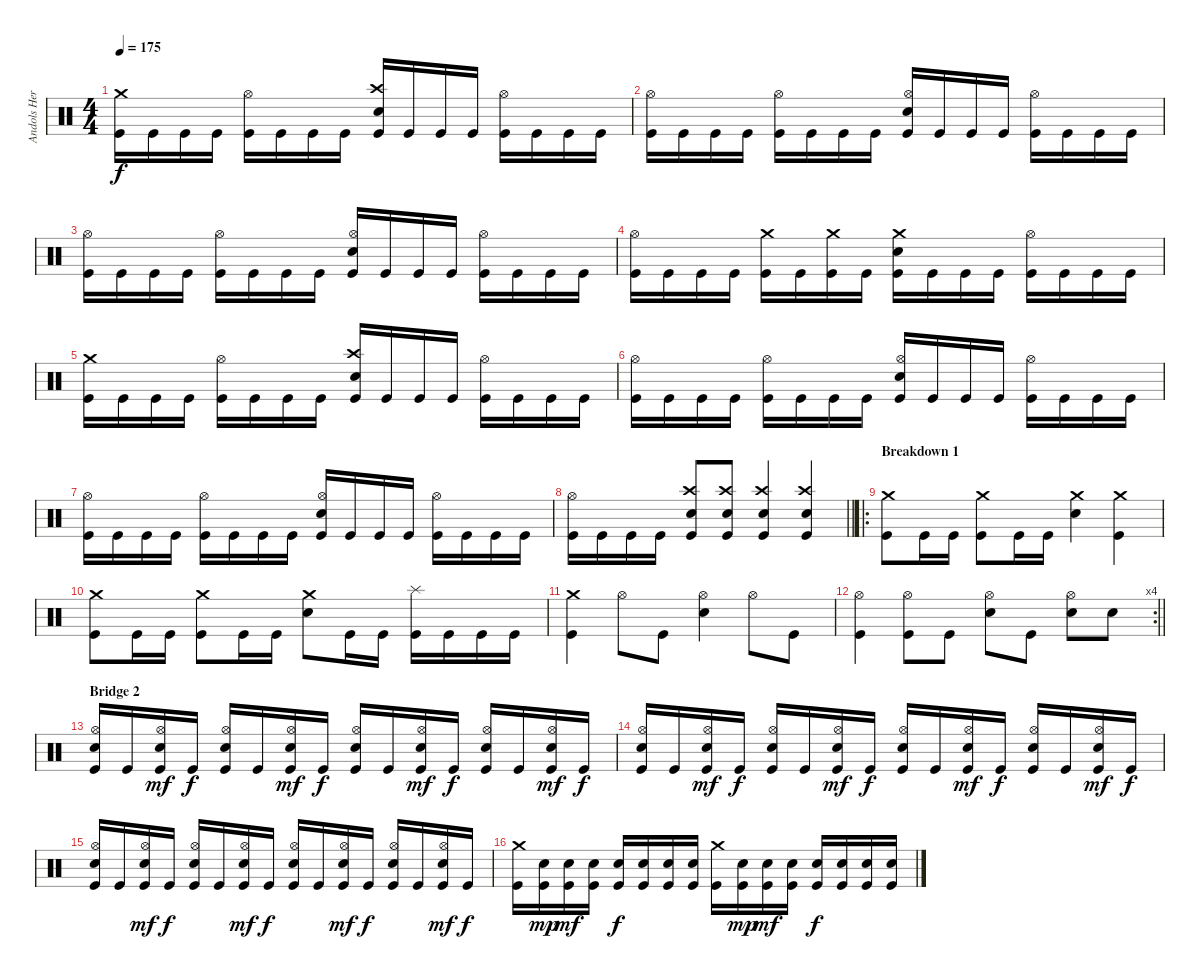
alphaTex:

\track ("Andols Herrick" "Andols Her") {instrument percussion}
\staff {score}
\articulation defaults
\ts (4 4)
\tempo 175
\clef neutral
\ks c
("Crash medium (hit)" "Kick (hit)").16{dy f} "Kick (hit)".16 "Kick (hit)".16 "Kick (hit)".16 ("Hi-Hat (open)" "Kick (hit)").16 "Kick (hit)".16 "Kick (hit)".16 "Kick (hit)".16 ("Crash high (hit)" "Electric Snare (hit)" "Kick (hit)").16 "Kick (hit)".16 "Kick (hit)".16 "Kick (hit)".16 ("Hi-Hat (open)" "Kick (hit)").16 "Kick (hit)".16 "Kick (hit)".16 "Kick (hit)".16 |
("Hi-Hat (open)" "Kick (hit)").16 "Kick (hit)".16 "Kick (hit)".16 "Kick (hit)".16 ("Hi-Hat (open)" "Kick (hit)").16 "Kick (hit)".16 "Kick (hit)".16 "Kick (hit)".16 ("Hi-Hat (open)" "Electric Snare (hit)" "Kick (hit)").16 "Kick (hit)".16 "Kick (hit)".16 "Kick (hit)".16 ("Hi-Hat (open)" "Kick (hit)").16 "Kick (hit)".16 "Kick (hit)".16 "Kick (hit)".16 |
("Hi-Hat (open)" "Kick (hit)").16 "Kick (hit)".16 "Kick (hit)".16 "Kick (hit)".16 ("Hi-Hat (open)" "Kick (hit)").16 "Kick (hit)".16 "Kick (hit)".16 "Kick (hit)".16 ("Hi-Hat (open)" "Electric Snare (hit)" "Kick (hit)").16 "Kick (hit)".16 "Kick (hit)".16 "Kick (hit)".16 ("Hi-Hat (open)" "Kick (hit)").16 "Kick (hit)".16 "Kick (hit)".16 "Kick (hit)".16 |
("Hi-Hat (open)" "Kick (hit)").16 "Kick (hit)".16 "Kick (hit)".16 "Kick (hit)".16 ("Crash medium (hit)" "Kick (hit)").16 "Kick (hit)".16 ("Crash medium (hit)" "Kick (hit)").16 "Kick (hit)".16 ("Crash medium (hit)" "Electric Snare (hit)" "Kick (hit)").16 "Kick (hit)".16 "Kick (hit)".16 "Kick (hit)".16 ("Hi-Hat (open)" "Kick (hit)").16 "Kick (hit)".16 "Kick (hit)".16 "Kick (hit)".16 |
("Crash medium (hit)" "Kick (hit)").16 "Kick (hit)".16 "Kick (hit)".16 "Kick (hit)".16 ("Hi-Hat (open)" "Kick (hit)").16 "Kick (hit)".16 "Kick (hit)".16 "Kick (hit)".16 ("Crash high (hit)" "Electric Snare (hit)" "Kick (hit)").16 "Kick (hit)".16 "Kick (hit)".16 "Kick (hit)".16 ("Hi-Hat (open)" "Kick (hit)").16 "Kick (hit)".16 "Kick (hit)".16 "Kick (hit)".16 |
("Hi-Hat (open)" "Kick (hit)").16 "Kick (hit)".16 "Kick (hit)".16 "Kick (hit)".16 ("Hi-Hat (open)" "Kick (hit)").16 "Kick (hit)".16 "Kick (hit)".16 "Kick (hit)".16 ("Hi-Hat (open)" "Electric Snare (hit)" "Kick (hit)").16 "Kick (hit)".16 "Kick (hit)".16 "Kick (hit)".16 ("Hi-Hat (open)" "Kick (hit)").16 "Kick (hit)".16 "Kick (hit)".16 "Kick (hit)".16 |
("Hi-Hat (open)" "Kick (hit)").16 "Kick (hit)".16 "Kick (hit)".16 "Kick (hit)".16 ("Hi-Hat (open)" "Kick (hit)").16 "Kick (hit)".16 "Kick (hit)".16 "Kick (hit)".16 ("Hi-Hat (open)" "Electric Snare (hit)" "Kick (hit)").16 "Kick (hit)".16 "Kick (hit)".16 "Kick (hit)".16 ("Hi-Hat (open)" "Kick (hit)").16 "Kick (hit)".16 "Kick (hit)".16 "Kick (hit)".16 |
\barLineRight lightlight
("Hi-Hat (open)" "Kick (hit)").16 "Kick (hit)".16 "Kick (hit)".16 "Kick (hit)".16 ("Crash high (hit)" "Electric Snare (hit)" "Kick (hit)").8 ("Crash high (hit)" "Electric Snare (hit)" "Kick (hit)").8 ("Crash high (hit)" "Electric Snare (hit)" "Kick (hit)").4 ("Crash high (hit)" "Electric Snare (hit)" "Kick (hit)").4 |
\ro
\section ("" "Breakdown 1")
("Crash medium (hit)" "Kick (hit)").8 "Kick (hit)".16 "Kick (hit)".16 ("Crash medium (hit)" "Kick (hit)").8 "Kick (hit)".16 "Kick (hit)".16 ("Crash medium (hit)" "Electric Snare (hit)").4 ("Crash medium (hit)" "Kick (hit)").4 |
("Crash medium (hit)" "Kick (hit)").8 "Kick (hit)".16 "Kick (hit)".16 ("Crash medium (hit)" "Kick (hit)").8 "Kick (hit)".16 "Kick (hit)".16 ("Crash medium (hit)" "Electric Snare (hit)").8 "Kick (hit)".16 "Kick (hit)".16 ("Splash (hit)" "Kick (hit)").16 "Kick (hit)".16 "Kick (hit)".16 "Kick (hit)".16 |
("Crash medium (hit)" "Kick (hit)").4 "Hi-Hat (open)".8 "Kick (hit)".8 ("Hi-Hat (open)" "Electric Snare (hit)").4 "Hi-Hat (open)".8 "Kick (hit)".8 |
\rc 4
\barLineRight lightlight
("Hi-Hat (open)" "Kick (hit)").4 ("Hi-Hat (open)" "Kick (hit)").8 "Kick (hit)".8 ("Hi-Hat (open)" "Electric Snare (hit)").8 "Kick (hit)".8 ("Hi-Hat (open)" "Electric Snare (hit)").8 "Electric Snare (hit)".8 |
\section ("" "Bridge 2")
("Hi-Hat (open)" "Electric Snare (hit)" "Kick (hit)").16 "Kick (hit)".16 ("Hi-Hat (open)" "Electric Snare (hit)" "Kick (hit)").16{dy mf} "Kick (hit)".16{dy f} ("Hi-Hat (open)" "Electric Snare (hit)" "Kick (hit)").16 "Kick (hit)".16 ("Hi-Hat (open)" "Electric Snare (hit)" "Kick (hit)").16{dy mf} "Kick (hit)".16{dy f} ("Hi-Hat (open)" "Electric Snare (hit)" "Kick (hit)").16 "Kick (hit)".16 ("Hi-Hat (open)" "Electric Snare (hit)" "Kick (hit)").16{dy mf} "Kick (hit)".16{dy f} ("Hi-Hat (open)" "Electric Snare (hit)" "Kick (hit)").16 "Kick (hit)".16 ("Hi-Hat (open)" "Electric Snare (hit)" "Kick (hit)").16{dy mf} "Kick (hit)".16{dy f} |
("Hi-Hat (open)" "Electric Snare (hit)" "Kick (hit)").16 "Kick (hit)".16 ("Hi-Hat (open)" "Electric Snare (hit)" "Kick (hit)").16{dy mf} "Kick (hit)".16{dy f} ("Hi-Hat (open)" "Electric Snare (hit)" "Kick (hit)").16 "Kick (hit)".16 ("Hi-Hat (open)" "Electric Snare (hit)" "Kick (hit)").16{dy mf} "Kick (hit)".16{dy f} ("Hi-Hat (open)" "Electric Snare (hit)" "Kick (hit)").16 "Kick (hit)".16 ("Hi-Hat (open)" "Electric Snare (hit)" "Kick (hit)").16{dy mf} "Kick (hit)".16{dy f} ("Hi-Hat (open)" "Electric Snare (hit)" "Kick (hit)").16 "Kick (hit)".16 ("Hi-Hat (open)" "Electric Snare (hit)" "Kick (hit)").16{dy mf} "Kick (hit)".16{dy f} |
("Hi-Hat (open)" "Electric Snare (hit)" "Kick (hit)").16 "Kick (hit)".16 ("Hi-Hat (open)" "Electric Snare (hit)" "Kick (hit)").16{dy mf} "Kick (hit)".16{dy f} ("Hi-Hat (open)" "Electric Snare (hit)" "Kick (hit)").16 "Kick (hit)".16 ("Hi-Hat (open)" "Electric Snare (hit)" "Kick (hit)").16{dy mf} "Kick (hit)".16{dy f} ("Hi-Hat (open)" "Electric Snare (hit)" "Kick (hit)").16 "Kick (hit)".16 ("Hi-Hat (open)" "Electric Snare (hit)" "Kick (hit)").16{dy mf} "Kick (hit)".16{dy f} ("Hi-Hat (open)" "Electric Snare (hit)" "Kick (hit)").16 "Kick (hit)".16 ("Hi-Hat (open)" "Electric Snare (hit)" "Kick (hit)").16{dy mf} "Kick (hit)".16{dy f} |
("Crash medium (hit)" "Kick (hit)").16 ("Electric Snare (hit)" "Kick (hit)").16{dy mp} ("Electric Snare (hit)" "Kick (hit)").16{dy mf} ("Electric Snare (hit)" "Kick (hit)").16 ("Electric Snare (hit)" "Kick (hit)").16{dy f} ("Electric Snare (hit)" "Kick (hit)").16 ("Electric Snare (hit)" "Kick (hit)").16 ("Electric Snare (hit)" "Kick (hit)").16 ("Crash medium (hit)" "Kick (hit)").16 ("Electric Snare (hit)" "Kick (hit)").16{dy mp} ("Electric Snare (hit)" "Kick (hit)").16{dy mf} ("Electric Snare (hit)" "Kick (hit)").16 ("Electric Snare (hit)" "Kick (hit)").16{dy f} ("Electric Snare (hit)" "Kick (hit)").16 ("Electric Snare (hit)" "Kick (hit)").16 ("Electric Snare (hit)" "Kick (hit)").16
